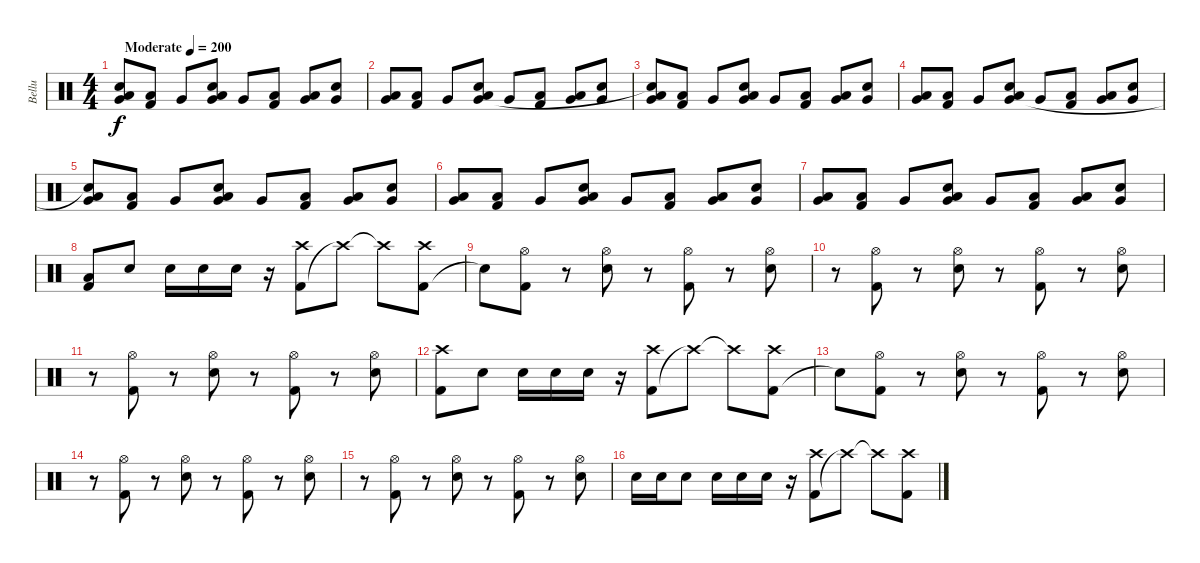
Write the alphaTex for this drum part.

\track ("Bellu" "Bellu") {instrument percussion}
\staff {score}
\articulation defaults
\ts (4 4)
\tempo (200 "Moderate")
\clef neutral
\ks c
("Low Floor Tom (hit)" "Very Low Tom (hit)" "Snare (hit)").8{dy f} ("Kick (hit) 2" "Low Floor Tom (hit)").8 "Very Low Tom (hit)".8 ("Electric Snare (hit)" "Low Floor Tom (hit)" "Very Low Tom (hit)").8 "Very Low Tom (hit)".8 ("Kick (hit) 2" "Low Floor Tom (hit)").8 ("Low Floor Tom (hit)" "Very Low Tom (hit)").8 ("Electric Snare (hit)" "Very Low Tom (hit)").8 |
("Low Floor Tom (hit)" "Very Low Tom (hit)").8 ("Kick (hit) 2" "Low Floor Tom (hit)").8 "Very Low Tom (hit)".8 ("Electric Snare (hit)" "Low Floor Tom (hit)" "Very Low Tom (hit)").8 "Very Low Tom (hit)".8 ("Kick (hit) 2" "Low Floor Tom (hit)").8 ("Low Floor Tom (hit)" "Very Low Tom (hit)").8 ("Electric Snare (hit)" "Very Low Tom (hit)").8 |
("Low Floor Tom (hit)" "Very Low Tom (hit)" "Snare (hit)"{t}).8 ("Kick (hit) 2" "Low Floor Tom (hit)").8 "Very Low Tom (hit)".8 ("Electric Snare (hit)" "Low Floor Tom (hit)" "Very Low Tom (hit)").8 "Very Low Tom (hit)".8 ("Kick (hit) 2" "Low Floor Tom (hit)").8 ("Low Floor Tom (hit)" "Very Low Tom (hit)").8 ("Electric Snare (hit)" "Very Low Tom (hit)").8 |
("Low Floor Tom (hit)" "Very Low Tom (hit)").8 ("Kick (hit) 2" "Low Floor Tom (hit)").8 "Very Low Tom (hit)".8 ("Electric Snare (hit)" "Low Floor Tom (hit)" "Very Low Tom (hit)").8 "Very Low Tom (hit)".8 ("Kick (hit) 2" "Low Floor Tom (hit)").8 ("Low Floor Tom (hit)" "Very Low Tom (hit)").8 ("Electric Snare (hit)" "Very Low Tom (hit)").8 |
("Low Floor Tom (hit)" "Very Low Tom (hit)" "Snare (hit)"{t}).8 ("Kick (hit) 2" "Low Floor Tom (hit)").8 "Very Low Tom (hit)".8 ("Electric Snare (hit)" "Low Floor Tom (hit)" "Very Low Tom (hit)").8 "Very Low Tom (hit)".8 ("Kick (hit) 2" "Low Floor Tom (hit)").8 ("Low Floor Tom (hit)" "Very Low Tom (hit)").8 ("Electric Snare (hit)" "Very Low Tom (hit)").8 |
("Low Floor Tom (hit)" "Very Low Tom (hit)").8 ("Kick (hit) 2" "Low Floor Tom (hit)").8 "Very Low Tom (hit)".8 ("Electric Snare (hit)" "Low Floor Tom (hit)" "Very Low Tom (hit)").8 "Very Low Tom (hit)".8 ("Kick (hit) 2" "Low Floor Tom (hit)").8 ("Low Floor Tom (hit)" "Very Low Tom (hit)").8 ("Electric Snare (hit)" "Very Low Tom (hit)").8 |
("Low Floor Tom (hit)" "Very Low Tom (hit)").8 ("Kick (hit) 2" "Low Floor Tom (hit)").8 "Very Low Tom (hit)".8 ("Electric Snare (hit)" "Low Floor Tom (hit)" "Very Low Tom (hit)").8 "Very Low Tom (hit)".8 ("Kick (hit) 2" "Low Floor Tom (hit)").8 ("Low Floor Tom (hit)" "Very Low Tom (hit)").8 ("Electric Snare (hit)" "Very Low Tom (hit)").8 |
("Kick (hit) 2" "Low Floor Tom (hit)").8 "Electric Snare (hit)".8 "Electric Snare (hit)".16 "Electric Snare (hit)".16 "Electric Snare (hit)".16 r.16 ("Kick (hit) 2" "Crash high (hit)").8 "Crash high (hit)"{t}.8 "Crash high (hit)"{t}.8 ("Kick (hit) 2" "Crash high (hit)").8 |
"Snare (hit)"{t}.8 ("Kick (hit) 2" "Hi-Hat (open)").8 r.8 ("Electric Snare (hit)" "Hi-Hat (open)").8 r.8 ("Kick (hit) 2" "Hi-Hat (open)").8 r.8 ("Electric Snare (hit)" "Hi-Hat (open)").8 |
r.8 ("Kick (hit) 2" "Hi-Hat (open)").8 r.8 ("Electric Snare (hit)" "Hi-Hat (open)").8 r.8 ("Kick (hit) 2" "Hi-Hat (open)").8 r.8 ("Electric Snare (hit)" "Hi-Hat (open)").8 |
r.8 ("Kick (hit) 2" "Hi-Hat (open)").8 r.8 ("Electric Snare (hit)" "Hi-Hat (open)").8 r.8 ("Kick (hit) 2" "Hi-Hat (open)").8 r.8 ("Electric Snare (hit)" "Hi-Hat (open)").8 |
("Kick (hit) 2" "Crash high (hit)").8 "Electric Snare (hit)".8 "Electric Snare (hit)".16 "Electric Snare (hit)".16 "Electric Snare (hit)".16 r.16 ("Kick (hit) 2" "Crash high (hit)").8 "Crash high (hit)"{t}.8 "Crash high (hit)"{t}.8 ("Kick (hit) 2" "Crash high (hit)").8 |
"Snare (hit)"{t}.8 ("Kick (hit) 2" "Hi-Hat (open)").8 r.8 ("Electric Snare (hit)" "Hi-Hat (open)").8 r.8 ("Kick (hit) 2" "Hi-Hat (open)").8 r.8 ("Electric Snare (hit)" "Hi-Hat (open)").8 |
r.8 ("Kick (hit) 2" "Hi-Hat (open)").8 r.8 ("Electric Snare (hit)" "Hi-Hat (open)").8 r.8 ("Kick (hit) 2" "Hi-Hat (open)").8 r.8 ("Electric Snare (hit)" "Hi-Hat (open)").8 |
r.8 ("Kick (hit) 2" "Hi-Hat (open)").8 r.8 ("Electric Snare (hit)" "Hi-Hat (open)").8 r.8 ("Kick (hit) 2" "Hi-Hat (open)").8 r.8 ("Electric Snare (hit)" "Hi-Hat (open)").8 |
"Electric Snare (hit)".16 "Electric Snare (hit)".16 "Electric Snare (hit)".8 "Electric Snare (hit)".16 "Electric Snare (hit)".16 "Electric Snare (hit)".16 r.16 ("Kick (hit) 2" "Crash high (hit)").8 "Crash high (hit)"{t}.8 "Crash high (hit)"{t}.8 ("Kick (hit) 2" "Crash high (hit)").8
